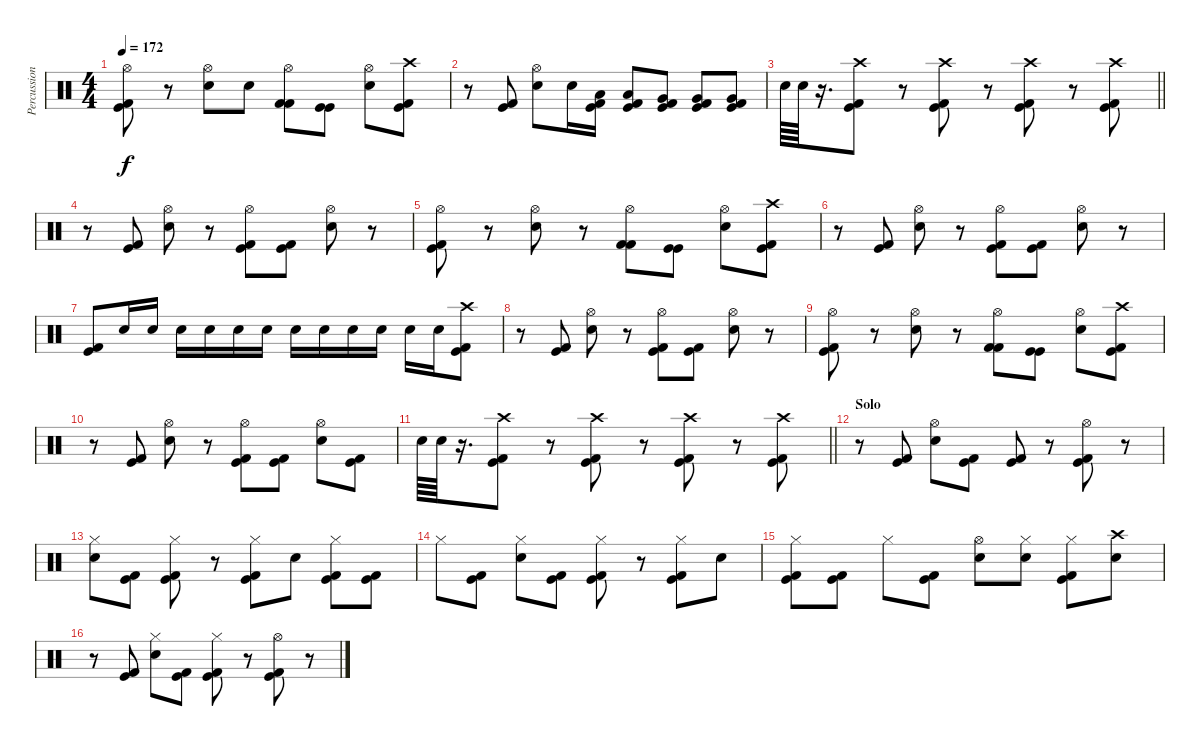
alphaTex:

\track ("Percussion" "Percussion") {instrument percussion}
\staff {score}
\articulation defaults
\ts (4 4)
\tempo 172
\clef neutral
\ks c
("Hi-Hat (open)" "Kick (hit)" "Kick (hit) 2").8{dy f} r.8 ("Hi-Hat (open)" "Snare (hit) 2").8 "Snare (hit) 2".8 ("Hi-Hat (open)" "Kick (hit) 2" "Kick (hit) 2").8 ("Kick (hit)" "Kick (hit)").8 ("Hi-Hat (open)" "Snare (hit) 2").8 ("Crash high (hit)" "Kick (hit)" "Kick (hit) 2").8 |
r.8 ("Kick (hit)" "Kick (hit) 2").8 ("Hi-Hat (open)" "Snare (hit) 2").8 "Snare (hit) 2".16 ("Low Tom (hit)" "Kick (hit)" "Kick (hit) 2").16 ("Low Tom (hit)" "Kick (hit)" "Kick (hit) 2").8 ("Very Low Tom (hit)" "Kick (hit)" "Kick (hit) 2").8 ("Very Low Tom (hit)" "Kick (hit)" "Kick (hit) 2").8 ("Very Low Tom (hit)" "Kick (hit)" "Kick (hit) 2").8 |
\barLineRight lightlight "Snare (hit) 2".64 "Snare (hit) 2".64
r.16{d} ("Crash high (hit)" "Kick (hit)" "Kick (hit) 2").8 r.8 ("Crash high (hit)" "Kick (hit)" "Kick (hit) 2").8 r.8 ("Crash high (hit)" "Kick (hit)" "Kick (hit) 2").8 r.8 ("Crash high (hit)" "Kick (hit)" "Kick (hit) 2").8 |
r.8 ("Kick (hit)" "Kick (hit) 2").8 ("Hi-Hat (open)" "Snare (hit) 2").8 r.8 ("Hi-Hat (open)" "Kick (hit)" "Kick (hit) 2").8 ("Kick (hit)" "Kick (hit) 2").8 ("Hi-Hat (open)" "Snare (hit) 2").8 r.8 |
("Hi-Hat (open)" "Kick (hit)" "Kick (hit) 2").8 r.8 ("Hi-Hat (open)" "Snare (hit) 2").8 r.8 ("Hi-Hat (open)" "Kick (hit) 2" "Kick (hit) 2").8 ("Kick (hit)" "Kick (hit)").8 ("Hi-Hat (open)" "Snare (hit) 2").8 ("Crash high (hit)" "Kick (hit)" "Kick (hit) 2").8 |
r.8 ("Kick (hit)" "Kick (hit) 2").8 ("Hi-Hat (open)" "Snare (hit) 2").8 r.8 ("Hi-Hat (open)" "Kick (hit)" "Kick (hit) 2").8 ("Kick (hit)" "Kick (hit) 2").8 ("Hi-Hat (open)" "Snare (hit) 2").8 r.8 |
("Kick (hit)" "Kick (hit) 2").8 "Snare (hit) 2".16 "Snare (hit) 2".16 "Snare (hit) 2".16 "Snare (hit) 2".16 "Snare (hit) 2".16 "Snare (hit) 2".16 "Snare (hit) 2".16 "Snare (hit) 2".16 "Snare (hit) 2".16 "Snare (hit) 2".16 "Snare (hit) 2".16 "Snare (hit) 2".16 ("Crash high (hit)" "Kick (hit)" "Kick (hit) 2").8 |
r.8 ("Kick (hit)" "Kick (hit) 2").8 ("Hi-Hat (open)" "Snare (hit) 2").8 r.8 ("Hi-Hat (open)" "Kick (hit)" "Kick (hit) 2").8 ("Kick (hit)" "Kick (hit) 2").8 ("Hi-Hat (open)" "Snare (hit) 2").8 r.8 |
("Hi-Hat (open)" "Kick (hit)" "Kick (hit) 2").8 r.8 ("Hi-Hat (open)" "Snare (hit) 2").8 r.8 ("Hi-Hat (open)" "Kick (hit) 2" "Kick (hit) 2").8 ("Kick (hit)" "Kick (hit)").8 ("Hi-Hat (open)" "Snare (hit) 2").8 ("Crash high (hit)" "Kick (hit)" "Kick (hit) 2").8 |
r.8 ("Kick (hit)" "Kick (hit) 2").8 ("Hi-Hat (open)" "Snare (hit) 2").8 r.8 ("Hi-Hat (open)" "Kick (hit)" "Kick (hit) 2").8 ("Kick (hit)" "Kick (hit) 2").8 ("Hi-Hat (open)" "Snare (hit) 2").8 ("Kick (hit)" "Kick (hit) 2").8 |
\barLineRight lightlight "Snare (hit) 2".64 "Snare (hit) 2".64
r.16{d} ("Crash high (hit)" "Kick (hit)" "Kick (hit) 2").8 r.8 ("Crash high (hit)" "Kick (hit)" "Kick (hit) 2").8 r.8 ("Crash high (hit)" "Kick (hit)" "Kick (hit) 2").8 r.8 ("Crash high (hit)" "Kick (hit)" "Kick (hit) 2").8 |
\section ("" "Solo")
r.8 ("Kick (hit)" "Kick (hit) 2").8 ("Hi-Hat (open)" "Snare (hit) 2").8 ("Kick (hit)" "Kick (hit) 2").8 ("Kick (hit)" "Kick (hit) 2").8 r.8 ("Hi-Hat (open)" "Kick (hit)" "Kick (hit) 2").8 r.8 |
("Hi-Hat (closed)" "Snare (hit) 2").8 ("Kick (hit)" "Kick (hit) 2").8 ("Hi-Hat (closed)" "Kick (hit)" "Kick (hit) 2").8 r.8 ("Hi-Hat (closed)" "Kick (hit)" "Kick (hit) 2").8 "Snare (hit) 2".8 ("Hi-Hat (closed)" "Kick (hit)" "Kick (hit) 2").8 ("Kick (hit)" "Kick (hit) 2").8 |
"Hi-Hat (closed)".8 ("Kick (hit)" "Kick (hit) 2").8 ("Hi-Hat (closed)" "Snare (hit) 2").8 ("Kick (hit)" "Kick (hit) 2").8 ("Hi-Hat (closed)" "Kick (hit)" "Kick (hit) 2").8 r.8 ("Hi-Hat (closed)" "Kick (hit)" "Kick (hit) 2").8 "Snare (hit) 2".8 |
("Hi-Hat (closed)" "Kick (hit)" "Kick (hit) 2").8 ("Kick (hit)" "Kick (hit) 2").8 "Hi-Hat (closed)".8 ("Kick (hit)" "Kick (hit) 2").8 ("Hi-Hat (open)" "Snare (hit) 2").8 ("Hi-Hat (closed)" "Snare (hit) 2").8 ("Hi-Hat (closed)" "Kick (hit)" "Kick (hit) 2").8 ("Crash high (hit)" "Snare (hit) 2").8 |
r.8 ("Kick (hit)" "Kick (hit) 2").8 ("Hi-Hat (closed)" "Snare (hit) 2").8 ("Kick (hit)" "Kick (hit) 2").8 ("Hi-Hat (closed)" "Kick (hit)" "Kick (hit) 2").8 r.8 ("Hi-Hat (open)" "Kick (hit)" "Kick (hit) 2").8 r.8
